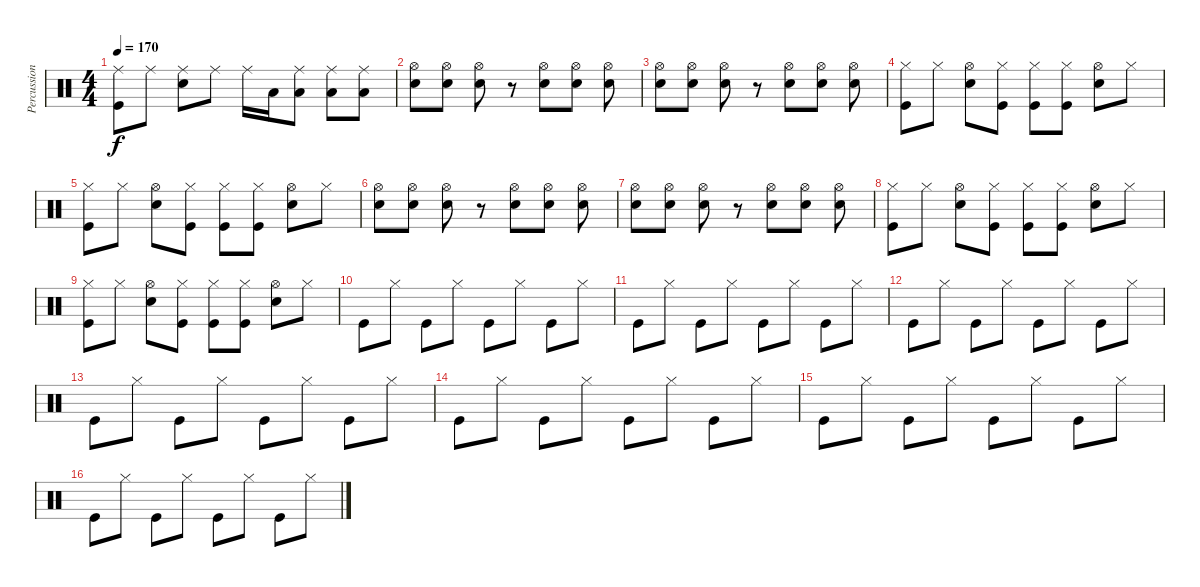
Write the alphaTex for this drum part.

\track ("Percussion" "Percussion") {instrument percussion}
\staff {score}
\articulation defaults
\ts (4 4)
\tempo 170
\clef neutral
\ks c
("Ride (middle)" "Kick (hit)").8{dy f} "Ride (middle)".8 ("Ride (middle)" "Electric Snare (hit)").8 "Ride (middle)".8 "Ride (middle)".16 "Low Floor Tom (hit)".16 ("Ride (middle)" "Low Floor Tom (hit)").8 ("Ride (middle)" "Low Floor Tom (hit)").8 ("Ride (middle)" "Low Floor Tom (hit)").8 |
("Hi-Hat (open)" "Electric Snare (hit)").8 ("Hi-Hat (open)" "Electric Snare (hit)").8 ("Hi-Hat (open)" "Electric Snare (hit)").8 r.8 ("Hi-Hat (open)" "Electric Snare (hit)").8 ("Hi-Hat (open)" "Electric Snare (hit)").8 ("Hi-Hat (open)" "Electric Snare (hit)").8 |
("Hi-Hat (open)" "Electric Snare (hit)").8 ("Hi-Hat (open)" "Electric Snare (hit)").8 ("Hi-Hat (open)" "Electric Snare (hit)").8 r.8 ("Hi-Hat (open)" "Electric Snare (hit)").8 ("Hi-Hat (open)" "Electric Snare (hit)").8 ("Hi-Hat (open)" "Electric Snare (hit)").8 |
("Hi-Hat (closed)" "Kick (hit)").8 "Hi-Hat (closed)".8 ("Hi-Hat (open)" "Electric Snare (hit)").8 ("Hi-Hat (closed)" "Kick (hit)").8 ("Hi-Hat (closed)" "Kick (hit)").8 ("Hi-Hat (closed)" "Kick (hit)").8 ("Hi-Hat (open)" "Electric Snare (hit)").8 "Hi-Hat (closed)".8 |
("Hi-Hat (closed)" "Kick (hit)").8 "Hi-Hat (closed)".8 ("Hi-Hat (open)" "Electric Snare (hit)").8 ("Hi-Hat (closed)" "Kick (hit)").8 ("Hi-Hat (closed)" "Kick (hit)").8 ("Hi-Hat (closed)" "Kick (hit)").8 ("Hi-Hat (open)" "Electric Snare (hit)").8 "Hi-Hat (closed)".8 |
("Hi-Hat (open)" "Electric Snare (hit)").8 ("Hi-Hat (open)" "Electric Snare (hit)").8 ("Hi-Hat (open)" "Electric Snare (hit)").8 r.8 ("Hi-Hat (open)" "Electric Snare (hit)").8 ("Hi-Hat (open)" "Electric Snare (hit)").8 ("Hi-Hat (open)" "Electric Snare (hit)").8 |
("Hi-Hat (open)" "Electric Snare (hit)").8 ("Hi-Hat (open)" "Electric Snare (hit)").8 ("Hi-Hat (open)" "Electric Snare (hit)").8 r.8 ("Hi-Hat (open)" "Electric Snare (hit)").8 ("Hi-Hat (open)" "Electric Snare (hit)").8 ("Hi-Hat (open)" "Electric Snare (hit)").8 |
("Hi-Hat (closed)" "Kick (hit)").8 "Hi-Hat (closed)".8 ("Hi-Hat (open)" "Electric Snare (hit)").8 ("Hi-Hat (closed)" "Kick (hit)").8 ("Hi-Hat (closed)" "Kick (hit)").8 ("Hi-Hat (closed)" "Kick (hit)").8 ("Hi-Hat (open)" "Electric Snare (hit)").8 "Hi-Hat (closed)".8 |
("Hi-Hat (closed)" "Kick (hit)").8 "Hi-Hat (closed)".8 ("Hi-Hat (open)" "Electric Snare (hit)").8 ("Hi-Hat (closed)" "Kick (hit)").8 ("Hi-Hat (closed)" "Kick (hit)").8 ("Hi-Hat (closed)" "Kick (hit)").8 ("Hi-Hat (open)" "Electric Snare (hit)").8 "Hi-Hat (closed)".8 |
"Kick (hit)".8 "Hi-Hat (closed)".8 "Kick (hit)".8 "Hi-Hat (closed)".8 "Kick (hit)".8 "Hi-Hat (closed)".8 "Kick (hit)".8 "Hi-Hat (closed)".8 |
"Kick (hit)".8 "Hi-Hat (closed)".8 "Kick (hit)".8 "Hi-Hat (closed)".8 "Kick (hit)".8 "Hi-Hat (closed)".8 "Kick (hit)".8 "Hi-Hat (closed)".8 |
"Kick (hit)".8 "Hi-Hat (closed)".8 "Kick (hit)".8 "Hi-Hat (closed)".8 "Kick (hit)".8 "Hi-Hat (closed)".8 "Kick (hit)".8 "Hi-Hat (closed)".8 |
"Kick (hit)".8 "Hi-Hat (closed)".8 "Kick (hit)".8 "Hi-Hat (closed)".8 "Kick (hit)".8 "Hi-Hat (closed)".8 "Kick (hit)".8 "Hi-Hat (closed)".8 |
"Kick (hit)".8 "Hi-Hat (closed)".8 "Kick (hit)".8 "Hi-Hat (closed)".8 "Kick (hit)".8 "Hi-Hat (closed)".8 "Kick (hit)".8 "Hi-Hat (closed)".8 |
"Kick (hit)".8 "Hi-Hat (closed)".8 "Kick (hit)".8 "Hi-Hat (closed)".8 "Kick (hit)".8 "Hi-Hat (closed)".8 "Kick (hit)".8 "Hi-Hat (closed)".8 |
"Kick (hit)".8 "Hi-Hat (closed)".8 "Kick (hit)".8 "Hi-Hat (closed)".8 "Kick (hit)".8 "Hi-Hat (closed)".8 "Kick (hit)".8 "Hi-Hat (closed)".8
